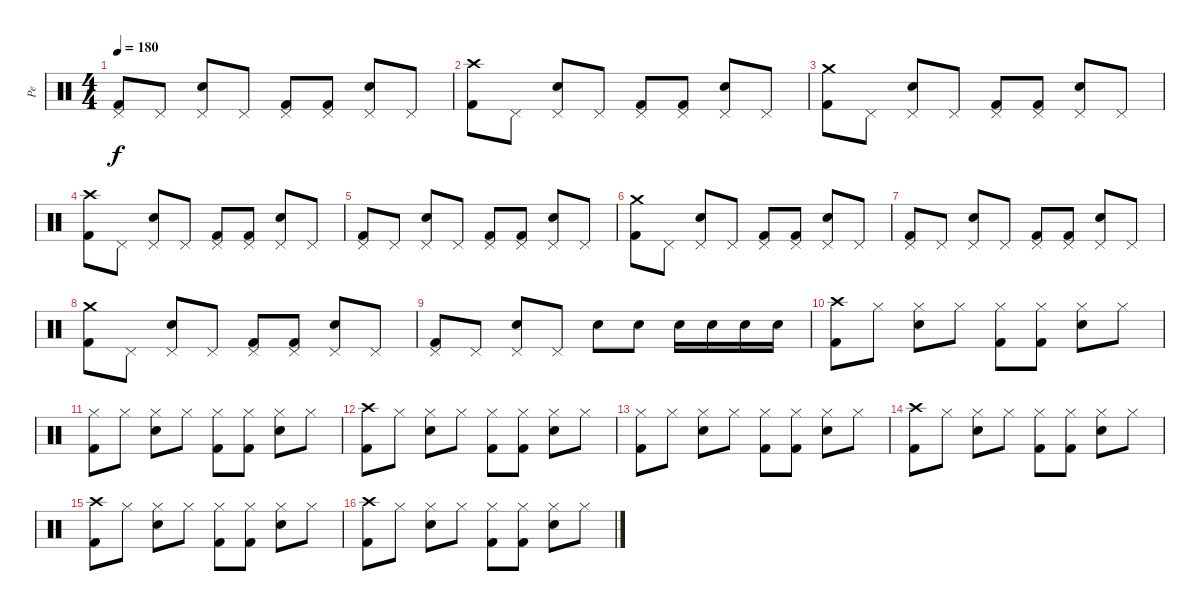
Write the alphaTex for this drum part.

\track ("Pe" "Pe") {instrument percussion}
\staff {score}
\articulation defaults
\ts (4 4)
\tempo 180
\clef neutral
\ks c
("Pedal Hi-Hat (hit)" "Kick (hit) 2").8{dy f} "Pedal Hi-Hat (hit)".8 ("Pedal Hi-Hat (hit)" "Electric Snare (hit)").8 "Pedal Hi-Hat (hit)".8 ("Pedal Hi-Hat (hit)" "Kick (hit) 2").8 ("Pedal Hi-Hat (hit)" "Kick (hit) 2").8 ("Pedal Hi-Hat (hit)" "Electric Snare (hit)").8 "Pedal Hi-Hat (hit)".8 |
("Crash high (hit)" "Kick (hit) 2").8 "Pedal Hi-Hat (hit)".8 ("Pedal Hi-Hat (hit)" "Electric Snare (hit)").8 "Pedal Hi-Hat (hit)".8 ("Pedal Hi-Hat (hit)" "Kick (hit) 2").8 ("Pedal Hi-Hat (hit)" "Kick (hit) 2").8 ("Pedal Hi-Hat (hit)" "Electric Snare (hit)").8 "Pedal Hi-Hat (hit)".8 |
("Crash medium (hit)" "Kick (hit) 2").8 "Pedal Hi-Hat (hit)".8 ("Pedal Hi-Hat (hit)" "Electric Snare (hit)").8 "Pedal Hi-Hat (hit)".8 ("Pedal Hi-Hat (hit)" "Kick (hit) 2").8 ("Pedal Hi-Hat (hit)" "Kick (hit) 2").8 ("Pedal Hi-Hat (hit)" "Electric Snare (hit)").8 "Pedal Hi-Hat (hit)".8 |
("Crash high (hit)" "Kick (hit) 2").8 "Pedal Hi-Hat (hit)".8 ("Pedal Hi-Hat (hit)" "Electric Snare (hit)").8 "Pedal Hi-Hat (hit)".8 ("Pedal Hi-Hat (hit)" "Kick (hit) 2").8 ("Pedal Hi-Hat (hit)" "Kick (hit) 2").8 ("Pedal Hi-Hat (hit)" "Electric Snare (hit)").8 "Pedal Hi-Hat (hit)".8 |
("Pedal Hi-Hat (hit)" "Kick (hit) 2").8 "Pedal Hi-Hat (hit)".8 ("Pedal Hi-Hat (hit)" "Electric Snare (hit)").8 "Pedal Hi-Hat (hit)".8 ("Pedal Hi-Hat (hit)" "Kick (hit) 2").8 ("Pedal Hi-Hat (hit)" "Kick (hit) 2").8 ("Pedal Hi-Hat (hit)" "Electric Snare (hit)").8 "Pedal Hi-Hat (hit)".8 |
("Crash medium (hit)" "Kick (hit) 2").8 "Pedal Hi-Hat (hit)".8 ("Pedal Hi-Hat (hit)" "Electric Snare (hit)").8 "Pedal Hi-Hat (hit)".8 ("Pedal Hi-Hat (hit)" "Kick (hit) 2").8 ("Pedal Hi-Hat (hit)" "Kick (hit) 2").8 ("Pedal Hi-Hat (hit)" "Electric Snare (hit)").8 "Pedal Hi-Hat (hit)".8 |
("Pedal Hi-Hat (hit)" "Kick (hit) 2").8 "Pedal Hi-Hat (hit)".8 ("Pedal Hi-Hat (hit)" "Electric Snare (hit)").8 "Pedal Hi-Hat (hit)".8 ("Pedal Hi-Hat (hit)" "Kick (hit) 2").8 ("Pedal Hi-Hat (hit)" "Kick (hit) 2").8 ("Pedal Hi-Hat (hit)" "Electric Snare (hit)").8 "Pedal Hi-Hat (hit)".8 |
("Crash medium (hit)" "Kick (hit) 2").8 "Pedal Hi-Hat (hit)".8 ("Pedal Hi-Hat (hit)" "Electric Snare (hit)").8 "Pedal Hi-Hat (hit)".8 ("Pedal Hi-Hat (hit)" "Kick (hit) 2").8 ("Pedal Hi-Hat (hit)" "Kick (hit) 2").8 ("Pedal Hi-Hat (hit)" "Electric Snare (hit)").8 "Pedal Hi-Hat (hit)".8 |
("Pedal Hi-Hat (hit)" "Kick (hit) 2").8 "Pedal Hi-Hat (hit)".8 ("Pedal Hi-Hat (hit)" "Electric Snare (hit)").8 "Pedal Hi-Hat (hit)".8 "Electric Snare (hit)".8 "Electric Snare (hit)".8 "Electric Snare (hit)".16 "Electric Snare (hit)".16 "Electric Snare (hit)".16 "Electric Snare (hit)".16 |
("Crash high (hit)" "Kick (hit) 2").8 "Hi-Hat (closed)".8 ("Hi-Hat (closed)" "Electric Snare (hit)").8 "Hi-Hat (closed)".8 ("Hi-Hat (closed)" "Kick (hit) 2").8 ("Hi-Hat (closed)" "Kick (hit) 2").8 ("Hi-Hat (closed)" "Electric Snare (hit)").8 "Hi-Hat (closed)".8 |
("Hi-Hat (closed)" "Kick (hit) 2").8 "Hi-Hat (closed)".8 ("Hi-Hat (closed)" "Electric Snare (hit)").8 "Hi-Hat (closed)".8 ("Hi-Hat (closed)" "Kick (hit) 2").8 ("Hi-Hat (closed)" "Kick (hit) 2").8 ("Hi-Hat (closed)" "Electric Snare (hit)").8 "Hi-Hat (closed)".8 |
("Crash high (hit)" "Kick (hit) 2").8 "Hi-Hat (closed)".8 ("Hi-Hat (closed)" "Electric Snare (hit)").8 "Hi-Hat (closed)".8 ("Hi-Hat (closed)" "Kick (hit) 2").8 ("Hi-Hat (closed)" "Kick (hit) 2").8 ("Hi-Hat (closed)" "Electric Snare (hit)").8 "Hi-Hat (closed)".8 |
("Hi-Hat (closed)" "Kick (hit) 2").8 "Hi-Hat (closed)".8 ("Hi-Hat (closed)" "Electric Snare (hit)").8 "Hi-Hat (closed)".8 ("Hi-Hat (closed)" "Kick (hit) 2").8 ("Hi-Hat (closed)" "Kick (hit) 2").8 ("Hi-Hat (closed)" "Electric Snare (hit)").8 "Hi-Hat (closed)".8 |
("Crash high (hit)" "Kick (hit) 2").8 "Hi-Hat (closed)".8 ("Hi-Hat (closed)" "Electric Snare (hit)").8 "Hi-Hat (closed)".8 ("Hi-Hat (closed)" "Kick (hit) 2").8 ("Hi-Hat (closed)" "Kick (hit) 2").8 ("Hi-Hat (closed)" "Electric Snare (hit)").8 "Hi-Hat (closed)".8 |
("Crash high (hit)" "Kick (hit) 2").8 "Hi-Hat (closed)".8 ("Hi-Hat (closed)" "Electric Snare (hit)").8 "Hi-Hat (closed)".8 ("Hi-Hat (closed)" "Kick (hit) 2").8 ("Hi-Hat (closed)" "Kick (hit) 2").8 ("Hi-Hat (closed)" "Electric Snare (hit)").8 "Hi-Hat (closed)".8 |
("Crash high (hit)" "Kick (hit) 2").8 "Hi-Hat (closed)".8 ("Hi-Hat (closed)" "Electric Snare (hit)").8 "Hi-Hat (closed)".8 ("Hi-Hat (closed)" "Kick (hit) 2").8 ("Hi-Hat (closed)" "Kick (hit) 2").8 ("Hi-Hat (closed)" "Electric Snare (hit)").8 "Hi-Hat (closed)".8
